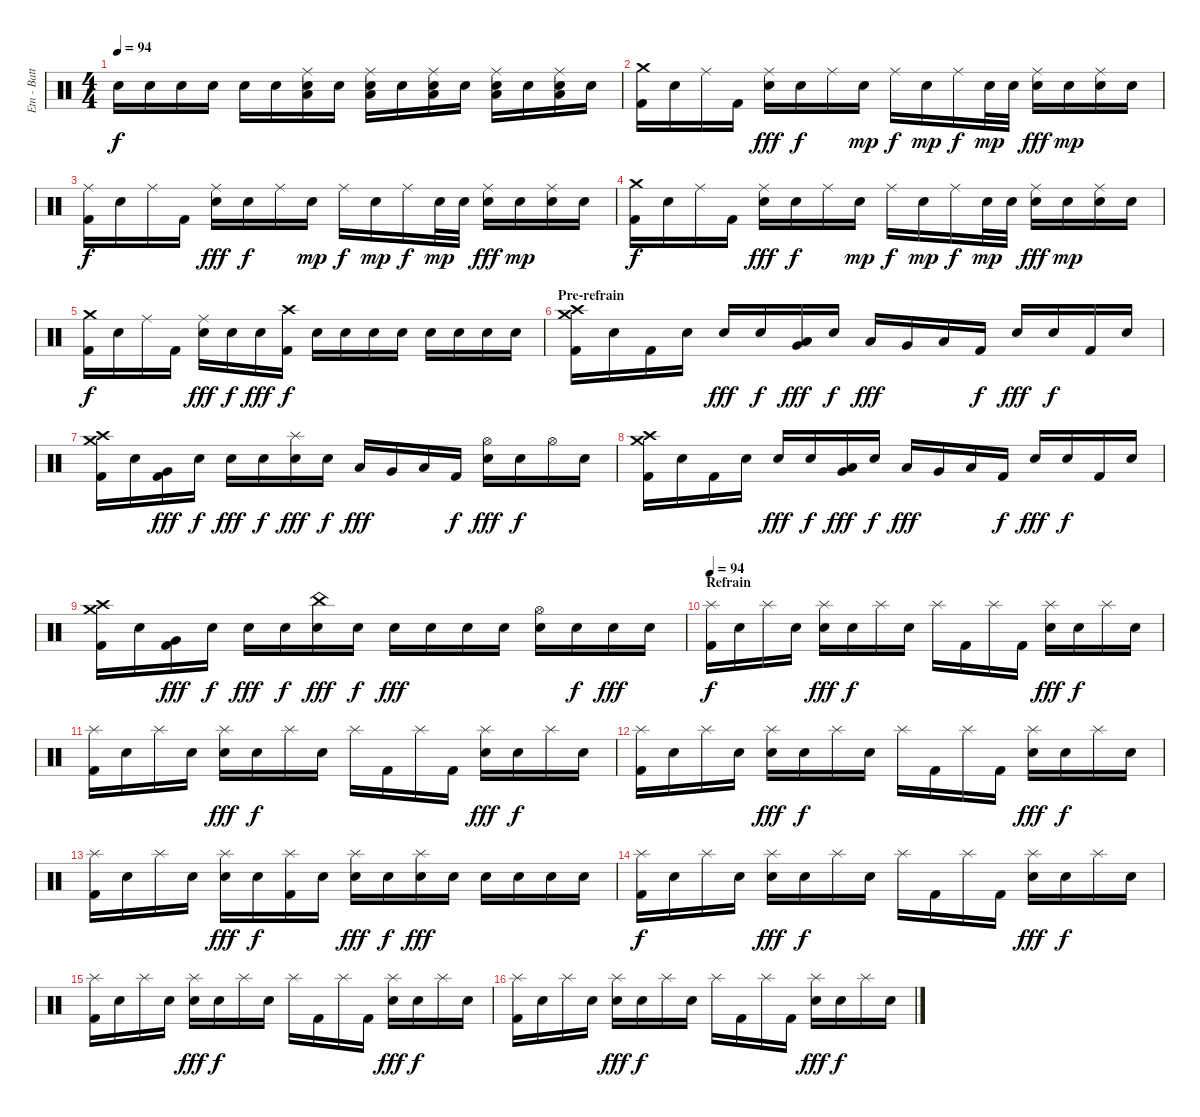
\track ("Etn - Batterie" "Etn - Batt") {instrument percussion}
\staff {score}
\articulation defaults
\ts (4 4)
\tempo 94
\clef neutral
\ks c "Snare (hit)".16{dy f} "Snare (hit)".16 "Snare (hit)".16 "Snare (hit)".16 "Snare (hit)".16 "Snare (hit)".16
("Ride (middle)" "Snare (hit) 2" "Low Tom (hit)").16 "Snare (hit)".16 ("Ride (middle)" "Snare (hit) 2" "Low Tom (hit)").16 "Snare (hit)".16 ("Ride (middle)" "Snare (hit) 2" "Low Tom (hit)").16 "Snare (hit)".16 ("Ride (middle)" "Snare (hit) 2" "Low Tom (hit)").16 "Snare (hit)".16 ("Ride (middle)" "Snare (hit) 2" "Low Tom (hit)").16 "Snare (hit)".16 |
\section ("" "")
("Crash medium (hit)" "Kick (hit) 2").16 "Snare (hit)".16 "Ride (middle)".16 "Kick (hit) 2".16 ("Ride (middle)" "Electric Snare (hit)").16{dy fff} "Snare (hit)".16{dy f} "Ride (middle)".16 "Electric Snare (hit)".16{dy mp} "Ride (middle)".16{dy f} "Electric Snare (hit)".16{dy mp} "Ride (middle)".16{dy f} "Electric Snare (hit)".32{dy mp} "Electric Snare (hit)".32 ("Ride (middle)" "Electric Snare (hit)").16{dy fff} "Electric Snare (hit)".16{dy mp} ("Ride (middle)" "Electric Snare (hit)").16 "Electric Snare (hit)".16 |
("Ride (middle)" "Kick (hit) 2").16{dy f} "Snare (hit)".16 "Ride (middle)".16 "Kick (hit) 2".16 ("Ride (middle)" "Electric Snare (hit)").16{dy fff} "Snare (hit)".16{dy f} "Ride (middle)".16 "Electric Snare (hit)".16{dy mp} "Ride (middle)".16{dy f} "Electric Snare (hit)".16{dy mp} "Ride (middle)".16{dy f} "Electric Snare (hit)".32{dy mp} "Electric Snare (hit)".32 ("Ride (middle)" "Electric Snare (hit)").16{dy fff} "Electric Snare (hit)".16{dy mp} ("Ride (middle)" "Electric Snare (hit)").16 "Electric Snare (hit)".16 |
("Crash medium (hit)" "Kick (hit) 2").16{dy f} "Snare (hit)".16 "Ride (middle)".16 "Kick (hit) 2".16 ("Ride (middle)" "Electric Snare (hit)").16{dy fff} "Snare (hit)".16{dy f} "Ride (middle)".16 "Electric Snare (hit)".16{dy mp} "Ride (middle)".16{dy f} "Electric Snare (hit)".16{dy mp} "Ride (middle)".16{dy f} "Electric Snare (hit)".32{dy mp} "Electric Snare (hit)".32 ("Ride (middle)" "Electric Snare (hit)").16{dy fff} "Electric Snare (hit)".16{dy mp} ("Ride (middle)" "Electric Snare (hit)").16 "Electric Snare (hit)".16 |
("Crash medium (hit)" "Kick (hit) 2").16{dy f} "Snare (hit)".16 "Ride (middle)".16 "Kick (hit) 2".16 ("Ride (middle)" "Electric Snare (hit)").16{dy fff} "Snare (hit)".16{dy f} "Electric Snare (hit)".16{dy fff} ("Crash high (hit)" "Kick (hit) 2").16{dy f} "Snare (hit)".16 "Snare (hit)".16 "Snare (hit)".16 "Snare (hit)".16 "Snare (hit)".16 "Snare (hit)".16 "Snare (hit)".16 "Snare (hit)".16 |
\section ("" "Pre-refrain")
("Crash medium (hit)" "Crash high (hit)" "Kick (hit) 2").16 "Snare (hit)".16 "Kick (hit) 2".16 "Snare (hit)".16 "Electric Snare (hit)".16{dy fff} "Snare (hit)".16{dy f} ("Low Tom (hit)" "Very Low Tom (hit)").16{dy fff} "Snare (hit)".16{dy f} "Low Tom (hit)".16{dy fff} "Very Low Tom (hit)".16 "Low Floor Tom (hit)".16 "Kick (hit) 2".16{dy f} "Electric Snare (hit)".16{dy fff} "Snare (hit)".16{dy f} "Kick (hit) 2".16 "Snare (hit)".16 |
("Crash medium (hit)" "Crash high (hit)" "Kick (hit) 2").16 "Snare (hit)".16 ("Very Low Tom (hit)" "Kick (hit) 2").16{dy fff} "Snare (hit)".16{dy f} "Electric Snare (hit)".16{dy fff} "Snare (hit)".16{dy f} ("Splash (hit)" "Electric Snare (hit)").16{dy fff} "Snare (hit)".16{dy f} "Low Tom (hit)".16{dy fff} "Very Low Tom (hit)".16 "Low Floor Tom (hit)".16 "Kick (hit) 2".16{dy f} ("Hi-Hat (open)" "Electric Snare (hit)").16{dy fff} "Snare (hit)".16{dy f} "Hi-Hat (open)".16 "Snare (hit)".16 |
("Crash medium (hit)" "Crash high (hit)" "Kick (hit) 2").16 "Snare (hit)".16 "Kick (hit) 2".16 "Snare (hit)".16 "Electric Snare (hit)".16{dy fff} "Snare (hit)".16{dy f} ("Low Tom (hit)" "Very Low Tom (hit)").16{dy fff} "Snare (hit)".16{dy f} "Low Tom (hit)".16{dy fff} "Very Low Tom (hit)".16 "Low Floor Tom (hit)".16 "Kick (hit) 2".16{dy f} "Electric Snare (hit)".16{dy fff} "Snare (hit)".16{dy f} "Kick (hit) 2".16 "Snare (hit)".16 |
("Crash medium (hit)" "Crash high (hit)" "Kick (hit) 2").16 "Snare (hit)".16 ("Very Low Tom (hit)" "Kick (hit) 2").16{dy fff} "Snare (hit)".16{dy f} "Electric Snare (hit)".16{dy fff} "Snare (hit)".16{dy f} ("China (hit)" "Electric Snare (hit)").16{dy fff} "Snare (hit)".16{dy f} "Electric Snare (hit)".16{dy fff} "Electric Snare (hit)".16 "Electric Snare (hit)".16 "Electric Snare (hit)".16 ("Hi-Hat (open)" "Electric Snare (hit)").16 "Snare (hit)".16{dy f} "Electric Snare (hit)".16{dy fff} "Electric Snare (hit)".16 |
\section ("" "Refrain")
\tempo 94
("Splash (hit)" "Kick (hit) 2").16{dy f volume 16 balance 8} "Snare (hit)".16 "Splash (hit)".16 "Snare (hit)".16 ("Splash (hit)" "Electric Snare (hit)").16{dy fff} "Snare (hit)".16{dy f} "Splash (hit)".16 "Snare (hit)".16 "Splash (hit)".16 "Kick (hit) 2".16 "Splash (hit)".16 "Kick (hit) 2".16 ("Splash (hit)" "Electric Snare (hit)").16{dy fff} "Snare (hit)".16{dy f} "Splash (hit)".16 "Snare (hit)".16 |
("Splash (hit)" "Kick (hit) 2").16 "Snare (hit)".16 "Splash (hit)".16 "Snare (hit)".16 ("Splash (hit)" "Electric Snare (hit)").16{dy fff} "Snare (hit)".16{dy f} "Splash (hit)".16 "Snare (hit)".16 "Splash (hit)".16 "Kick (hit) 2".16 "Splash (hit)".16 "Kick (hit) 2".16 ("Splash (hit)" "Electric Snare (hit)").16{dy fff} "Snare (hit)".16{dy f} "Splash (hit)".16 "Snare (hit)".16 |
("Splash (hit)" "Kick (hit) 2").16 "Snare (hit)".16 "Splash (hit)".16 "Snare (hit)".16 ("Splash (hit)" "Electric Snare (hit)").16{dy fff} "Snare (hit)".16{dy f} "Splash (hit)".16 "Snare (hit)".16 "Splash (hit)".16 "Kick (hit) 2".16 "Splash (hit)".16 "Kick (hit) 2".16 ("Splash (hit)" "Electric Snare (hit)").16{dy fff} "Snare (hit)".16{dy f} "Splash (hit)".16 "Snare (hit)".16 |
("Splash (hit)" "Kick (hit) 2").16 "Snare (hit)".16 "Splash (hit)".16 "Snare (hit)".16 ("Splash (hit)" "Electric Snare (hit)").16{dy fff} "Snare (hit)".16{dy f} ("Splash (hit)" "Kick (hit) 2").16 "Snare (hit)".16 ("Splash (hit)" "Electric Snare (hit)").16{dy fff} "Snare (hit)".16{dy f} ("Splash (hit)" "Electric Snare (hit)").16{dy fff} "Electric Snare (hit)".16 "Electric Snare (hit)".16 "Electric Snare (hit)".16 "Electric Snare (hit)".16 "Electric Snare (hit)".16 |
("Splash (hit)" "Kick (hit) 2").16{dy f} "Snare (hit)".16 "Splash (hit)".16 "Snare (hit)".16 ("Splash (hit)" "Electric Snare (hit)").16{dy fff} "Snare (hit)".16{dy f} "Splash (hit)".16 "Snare (hit)".16 "Splash (hit)".16 "Kick (hit) 2".16 "Splash (hit)".16 "Kick (hit) 2".16 ("Splash (hit)" "Electric Snare (hit)").16{dy fff} "Snare (hit)".16{dy f} "Splash (hit)".16 "Snare (hit)".16 |
("Splash (hit)" "Kick (hit) 2").16 "Snare (hit)".16 "Splash (hit)".16 "Snare (hit)".16 ("Splash (hit)" "Electric Snare (hit)").16{dy fff} "Snare (hit)".16{dy f} "Splash (hit)".16 "Snare (hit)".16 "Splash (hit)".16 "Kick (hit) 2".16 "Splash (hit)".16 "Kick (hit) 2".16 ("Splash (hit)" "Electric Snare (hit)").16{dy fff} "Snare (hit)".16{dy f} "Splash (hit)".16 "Snare (hit)".16 |
("Splash (hit)" "Kick (hit) 2").16 "Snare (hit)".16 "Splash (hit)".16 "Snare (hit)".16 ("Splash (hit)" "Electric Snare (hit)").16{dy fff} "Snare (hit)".16{dy f} "Splash (hit)".16 "Snare (hit)".16 "Splash (hit)".16 "Kick (hit) 2".16 "Splash (hit)".16 "Kick (hit) 2".16 ("Splash (hit)" "Electric Snare (hit)").16{dy fff} "Snare (hit)".16{dy f} "Splash (hit)".16 "Snare (hit)".16
